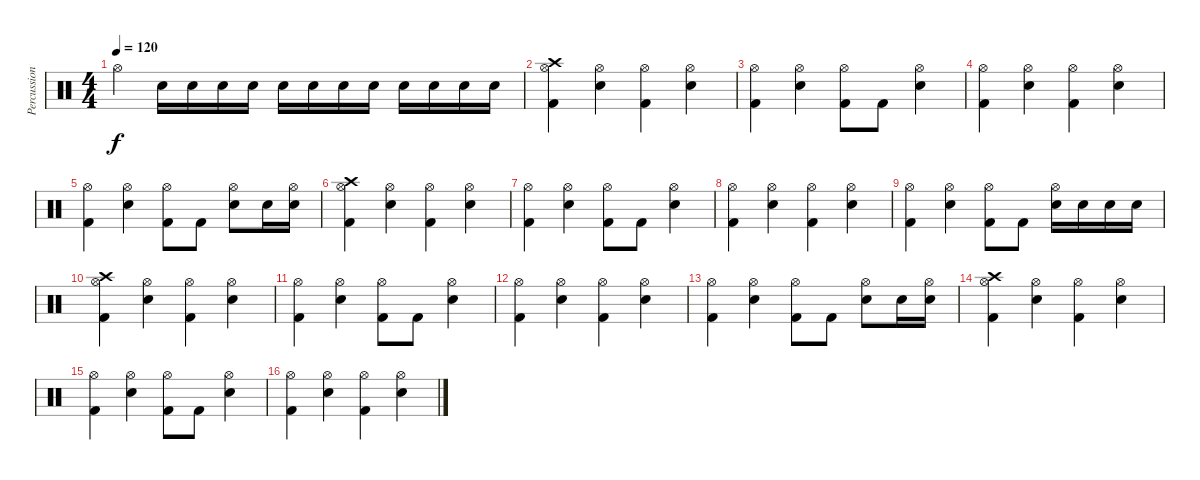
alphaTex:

\track ("Percussion" "Percussion") {instrument percussion}
\staff {score}
\articulation defaults
\ts (4 4)
\tempo 120
\clef neutral
\ks c "Hi-Hat (open)".4{dy f} "Snare (hit) 2".16 "Snare (hit) 2".16 "Snare (hit) 2".16 "Snare (hit) 2".16 "Snare (hit) 2".16 "Snare (hit) 2".16 "Snare (hit) 2".16 "Snare (hit) 2".16 "Snare (hit) 2".16 "Snare (hit) 2".16 "Snare (hit) 2".16 "Snare (hit) 2".16
|
("Crash high (hit)" "Hi-Hat (open)" "Kick (hit) 2").4{volume 16} ("Hi-Hat (open)" "Snare (hit) 2").4 ("Hi-Hat (open)" "Kick (hit) 2").4 ("Hi-Hat (open)" "Snare (hit) 2").4 |
("Hi-Hat (open)" "Kick (hit) 2").4 ("Hi-Hat (open)" "Snare (hit) 2").4 ("Hi-Hat (open)" "Kick (hit) 2").8 "Kick (hit) 2".8 ("Hi-Hat (open)" "Snare (hit) 2").4 |
("Hi-Hat (open)" "Kick (hit) 2").4 ("Hi-Hat (open)" "Snare (hit) 2").4 ("Hi-Hat (open)" "Kick (hit) 2").4 ("Hi-Hat (open)" "Snare (hit) 2").4 |
("Hi-Hat (open)" "Kick (hit) 2").4 ("Hi-Hat (open)" "Snare (hit) 2").4 ("Hi-Hat (open)" "Kick (hit) 2").8 "Kick (hit) 2".8 ("Hi-Hat (open)" "Snare (hit) 2").8 "Snare (hit) 2".16 ("Hi-Hat (open)" "Snare (hit) 2").16 |
("Crash high (hit)" "Hi-Hat (open)" "Kick (hit) 2").4{volume 16} ("Hi-Hat (open)" "Snare (hit) 2").4 ("Hi-Hat (open)" "Kick (hit) 2").4 ("Hi-Hat (open)" "Snare (hit) 2").4 |
("Hi-Hat (open)" "Kick (hit) 2").4 ("Hi-Hat (open)" "Snare (hit) 2").4 ("Hi-Hat (open)" "Kick (hit) 2").8 "Kick (hit) 2".8 ("Hi-Hat (open)" "Snare (hit) 2").4 |
("Hi-Hat (open)" "Kick (hit) 2").4 ("Hi-Hat (open)" "Snare (hit) 2").4 ("Hi-Hat (open)" "Kick (hit) 2").4 ("Hi-Hat (open)" "Snare (hit) 2").4 |
("Hi-Hat (open)" "Kick (hit) 2").4 ("Hi-Hat (open)" "Snare (hit) 2").4 ("Hi-Hat (open)" "Kick (hit) 2").8 "Kick (hit) 2".8 ("Hi-Hat (open)" "Snare (hit) 2").16 "Snare (hit) 2".16 "Snare (hit) 2".16 "Snare (hit) 2".16 |
("Crash high (hit)" "Hi-Hat (open)" "Kick (hit) 2").4{volume 16} ("Hi-Hat (open)" "Snare (hit) 2").4 ("Hi-Hat (open)" "Kick (hit) 2").4 ("Hi-Hat (open)" "Snare (hit) 2").4 |
("Hi-Hat (open)" "Kick (hit) 2").4 ("Hi-Hat (open)" "Snare (hit) 2").4 ("Hi-Hat (open)" "Kick (hit) 2").8 "Kick (hit) 2".8 ("Hi-Hat (open)" "Snare (hit) 2").4 |
("Hi-Hat (open)" "Kick (hit) 2").4 ("Hi-Hat (open)" "Snare (hit) 2").4 ("Hi-Hat (open)" "Kick (hit) 2").4 ("Hi-Hat (open)" "Snare (hit) 2").4 |
("Hi-Hat (open)" "Kick (hit) 2").4 ("Hi-Hat (open)" "Snare (hit) 2").4 ("Hi-Hat (open)" "Kick (hit) 2").8 "Kick (hit) 2".8 ("Hi-Hat (open)" "Snare (hit) 2").8 "Snare (hit) 2".16 ("Hi-Hat (open)" "Snare (hit) 2").16 |
("Crash high (hit)" "Hi-Hat (open)" "Kick (hit) 2").4{volume 16} ("Hi-Hat (open)" "Snare (hit) 2").4 ("Hi-Hat (open)" "Kick (hit) 2").4 ("Hi-Hat (open)" "Snare (hit) 2").4 |
("Hi-Hat (open)" "Kick (hit) 2").4 ("Hi-Hat (open)" "Snare (hit) 2").4 ("Hi-Hat (open)" "Kick (hit) 2").8 "Kick (hit) 2".8 ("Hi-Hat (open)" "Snare (hit) 2").4 |
("Hi-Hat (open)" "Kick (hit) 2").4 ("Hi-Hat (open)" "Snare (hit) 2").4 ("Hi-Hat (open)" "Kick (hit) 2").4 ("Hi-Hat (open)" "Snare (hit) 2").4
